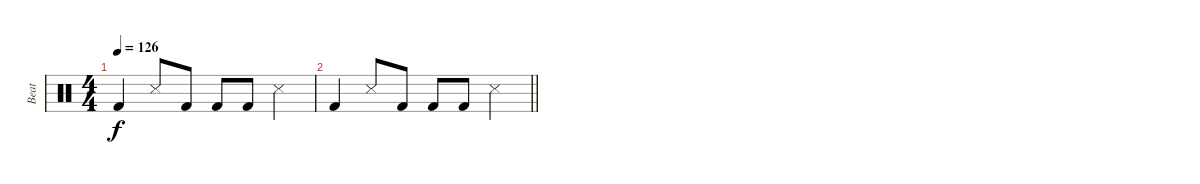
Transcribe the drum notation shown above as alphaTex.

\track ("Beat" "Beat") {instrument percussion}
\staff {score}
\articulation defaults
\ts (4 4)
\tempo 126
\clef neutral
\ks c "Kick (hit) 2".4{dy f} "Snare (side stick) 3".8 "Kick (hit) 2".8 "Kick (hit) 2".8 "Kick (hit) 2".8 "Snare (side stick) 3".4
|
\barLineRight lightlight "Kick (hit) 2".4 "Snare (side stick) 3".8 "Kick (hit) 2".8 "Kick (hit) 2".8 "Kick (hit) 2".8 "Snare (side stick) 3".4
